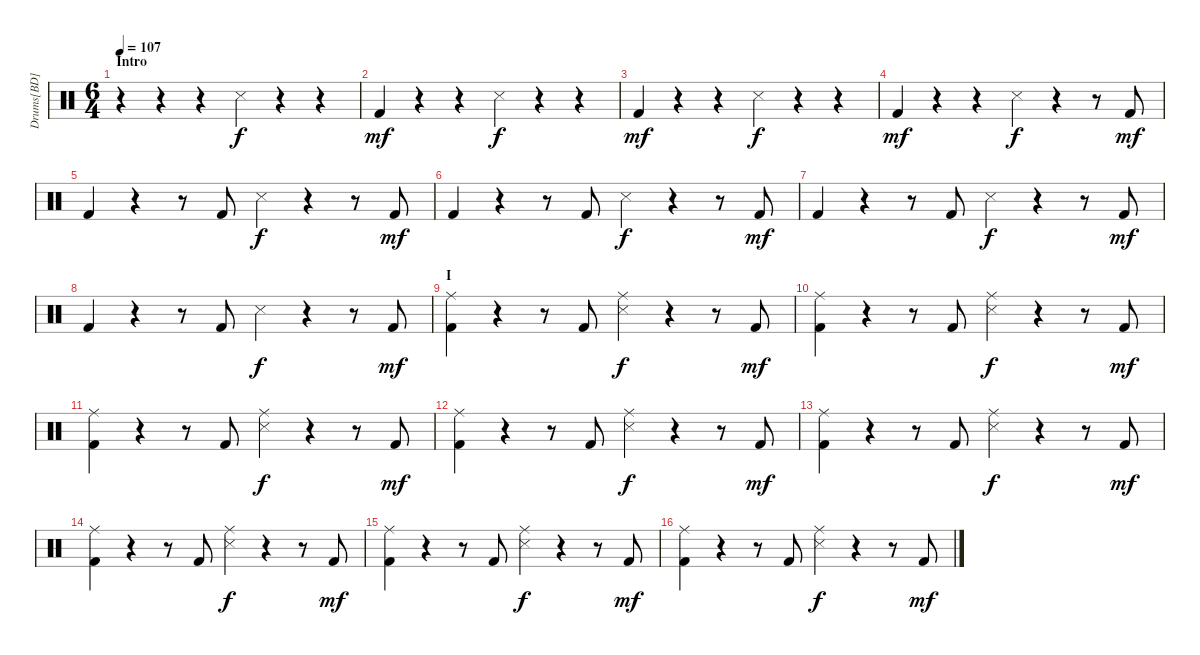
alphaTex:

\track ("Drums[BD]" "Drums[BD]") {instrument percussion}
\staff {score}
\articulation defaults
\ts (6 4)
\section ("" "Intro")
\tempo 107
\clef neutral
\ks c
r.4{dy f} r.4 r.4 "Snare (side stick) 3".4 r.4 r.4 |
"Kick (hit) 2".4{dy mf} r.4 r.4 "Snare (side stick) 3".4{dy f} r.4 r.4 |
"Kick (hit) 2".4{dy mf} r.4 r.4 "Snare (side stick) 3".4{dy f} r.4 r.4 |
"Kick (hit) 2".4{dy mf} r.4 r.4 "Snare (side stick) 3".4{dy f} r.4 r.8 "Kick (hit) 2".8{dy mf} |
"Kick (hit) 2".4 r.4 r.8 "Kick (hit) 2".8 "Snare (side stick) 3".4{dy f} r.4 r.8 "Kick (hit) 2".8{dy mf} |
"Kick (hit) 2".4 r.4 r.8 "Kick (hit) 2".8 "Snare (side stick) 3".4{dy f} r.4 r.8 "Kick (hit) 2".8{dy mf} |
"Kick (hit) 2".4 r.4 r.8 "Kick (hit) 2".8 "Snare (side stick) 3".4{dy f} r.4 r.8 "Kick (hit) 2".8{dy mf} |
"Kick (hit) 2".4 r.4 r.8 "Kick (hit) 2".8 "Snare (side stick) 3".4{dy f} r.4 r.8 "Kick (hit) 2".8{dy mf} |
\section ("" "I")
("Kick (hit) 2" "Ride (middle)").4 r.4 r.8 "Kick (hit) 2".8 ("Snare (side stick) 3" "Ride (middle)").4{dy f} r.4 r.8 "Kick (hit) 2".8{dy mf} |
("Kick (hit) 2" "Ride (middle)").4 r.4 r.8 "Kick (hit) 2".8 ("Snare (side stick) 3" "Ride (middle)").4{dy f} r.4 r.8 "Kick (hit) 2".8{dy mf} |
("Kick (hit) 2" "Ride (middle)").4 r.4 r.8 "Kick (hit) 2".8 ("Snare (side stick) 3" "Ride (middle)").4{dy f} r.4 r.8 "Kick (hit) 2".8{dy mf} |
("Kick (hit) 2" "Ride (middle)").4 r.4 r.8 "Kick (hit) 2".8 ("Snare (side stick) 3" "Ride (middle)").4{dy f} r.4 r.8 "Kick (hit) 2".8{dy mf} |
("Kick (hit) 2" "Ride (middle)").4 r.4 r.8 "Kick (hit) 2".8 ("Snare (side stick) 3" "Ride (middle)").4{dy f} r.4 r.8 "Kick (hit) 2".8{dy mf} |
("Kick (hit) 2" "Ride (middle)").4 r.4 r.8 "Kick (hit) 2".8 ("Snare (side stick) 3" "Ride (middle)").4{dy f} r.4 r.8 "Kick (hit) 2".8{dy mf} |
("Kick (hit) 2" "Ride (middle)").4 r.4 r.8 "Kick (hit) 2".8 ("Snare (side stick) 3" "Ride (middle)").4{dy f} r.4 r.8 "Kick (hit) 2".8{dy mf} |
("Kick (hit) 2" "Ride (middle)").4 r.4 r.8 "Kick (hit) 2".8 ("Snare (side stick) 3" "Ride (middle)").4{dy f} r.4 r.8 "Kick (hit) 2".8{dy mf}
